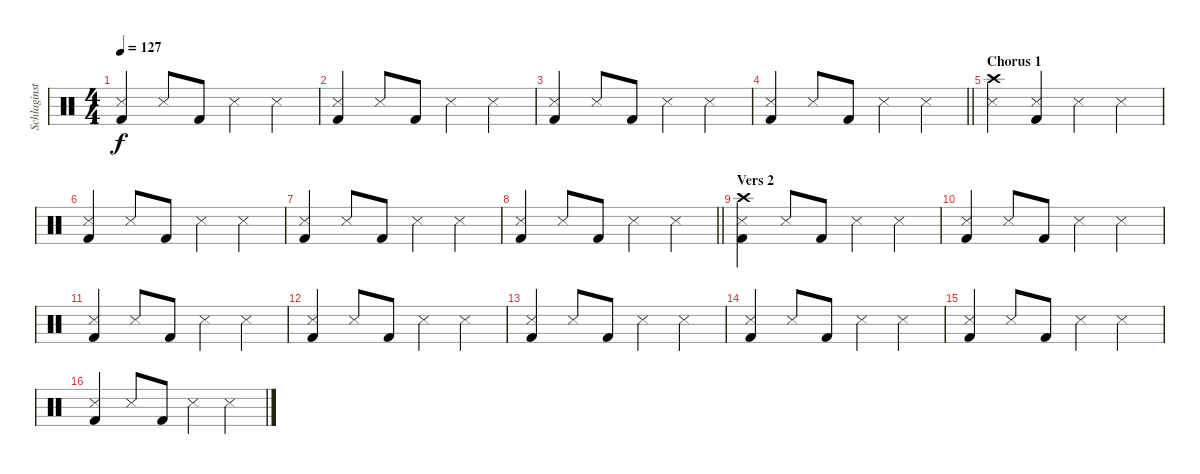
\track ("Schlaginstrumente - Auswahl" "Schlaginst") {instrument percussion}
\staff {score}
\articulation defaults
\ts (4 4)
\tempo 127
\clef neutral
\ks c
("Snare (side stick) 3" "Kick (hit) 2").4{dy f} "Snare (side stick) 3".8 "Kick (hit) 2".8 "Snare (side stick) 3".4 "Snare (side stick) 3".4 |
("Snare (side stick) 3" "Kick (hit) 2").4 "Snare (side stick) 3".8 "Kick (hit) 2".8 "Snare (side stick) 3".4 "Snare (side stick) 3".4 |
("Snare (side stick) 3" "Kick (hit) 2").4 "Snare (side stick) 3".8 "Kick (hit) 2".8 "Snare (side stick) 3".4 "Snare (side stick) 3".4 |
\barLineRight lightlight
("Snare (side stick) 3" "Kick (hit) 2").4 "Snare (side stick) 3".8 "Kick (hit) 2".8 "Snare (side stick) 3".4 "Snare (side stick) 3".4 |
\section ("" "Chorus 1")
("Crash high (hit)" "Snare (side stick) 3").4 ("Snare (side stick) 3" "Kick (hit) 2").4 "Snare (side stick) 3".4 "Snare (side stick) 3".4 |
("Snare (side stick) 3" "Kick (hit) 2").4 "Snare (side stick) 3".8 "Kick (hit) 2".8 "Snare (side stick) 3".4 "Snare (side stick) 3".4 |
("Snare (side stick) 3" "Kick (hit) 2").4 "Snare (side stick) 3".8 "Kick (hit) 2".8 "Snare (side stick) 3".4 "Snare (side stick) 3".4 |
\barLineRight lightlight
("Snare (side stick) 3" "Kick (hit) 2").4 "Snare (side stick) 3".8 "Kick (hit) 2".8 "Snare (side stick) 3".4 "Snare (side stick) 3".4 |
\section ("" "Vers 2")
("Crash high (hit)" "Snare (side stick) 3" "Kick (hit) 2").4 "Snare (side stick) 3".8 "Kick (hit) 2".8 "Snare (side stick) 3".4 "Snare (side stick) 3".4 |
("Snare (side stick) 3" "Kick (hit) 2").4 "Snare (side stick) 3".8 "Kick (hit) 2".8 "Snare (side stick) 3".4 "Snare (side stick) 3".4 |
("Snare (side stick) 3" "Kick (hit) 2").4 "Snare (side stick) 3".8 "Kick (hit) 2".8 "Snare (side stick) 3".4 "Snare (side stick) 3".4 |
("Snare (side stick) 3" "Kick (hit) 2").4 "Snare (side stick) 3".8 "Kick (hit) 2".8 "Snare (side stick) 3".4 "Snare (side stick) 3".4 |
("Snare (side stick) 3" "Kick (hit) 2").4 "Snare (side stick) 3".8 "Kick (hit) 2".8 "Snare (side stick) 3".4 "Snare (side stick) 3".4 |
("Snare (side stick) 3" "Kick (hit) 2").4 "Snare (side stick) 3".8 "Kick (hit) 2".8 "Snare (side stick) 3".4 "Snare (side stick) 3".4 |
("Snare (side stick) 3" "Kick (hit) 2").4 "Snare (side stick) 3".8 "Kick (hit) 2".8 "Snare (side stick) 3".4 "Snare (side stick) 3".4 |
("Snare (side stick) 3" "Kick (hit) 2").4 "Snare (side stick) 3".8 "Kick (hit) 2".8 "Snare (side stick) 3".4 "Snare (side stick) 3".4
